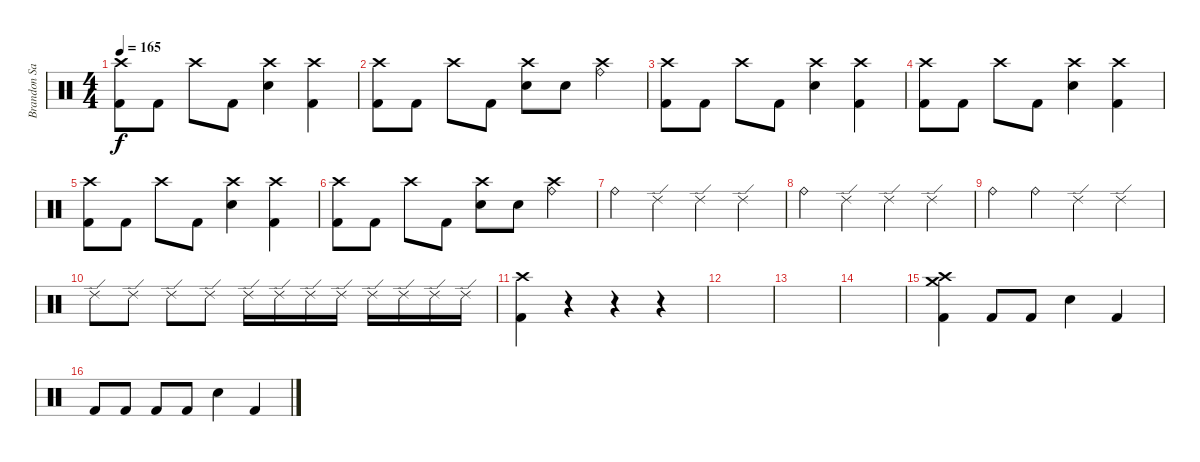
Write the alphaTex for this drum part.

\track ("Brandon Saller" "Brandon Sa") {instrument percussion}
\staff {score}
\articulation defaults
\ts (4 4)
\tempo 165
\clef neutral
\ks c
("Crash high (hit)" "Kick (hit) 2").8{dy f} "Kick (hit) 2".8 "Crash high (hit)".8 "Kick (hit) 2".8 ("Crash high (hit)" "Electric Snare (hit)").4 ("Crash high (hit)" "Kick (hit) 2").4 |
("Crash high (hit)" "Kick (hit) 2").8 "Kick (hit) 2".8 "Crash high (hit)".8 "Kick (hit) 2".8 ("Crash high (hit)" "Electric Snare (hit)").8 "Electric Snare (hit)".8 ("Crash high (hit)" "Ride (bell)").4 |
("Crash high (hit)" "Kick (hit) 2").8 "Kick (hit) 2".8 "Crash high (hit)".8 "Kick (hit) 2".8 ("Crash high (hit)" "Electric Snare (hit)").4 ("Crash high (hit)" "Kick (hit) 2").4 |
("Crash high (hit)" "Kick (hit) 2").8 "Kick (hit) 2".8 "Crash high (hit)".8 "Kick (hit) 2".8 ("Crash high (hit)" "Electric Snare (hit)").4 ("Crash high (hit)" "Kick (hit) 2").4 |
("Crash high (hit)" "Kick (hit) 2").8 "Kick (hit) 2".8 "Crash high (hit)".8 "Kick (hit) 2".8 ("Crash high (hit)" "Electric Snare (hit)").4 ("Crash high (hit)" "Kick (hit) 2").4 |
("Crash high (hit)" "Kick (hit) 2").8 "Kick (hit) 2".8 "Crash high (hit)".8 "Kick (hit) 2".8 ("Crash high (hit)" "Electric Snare (hit)").8 "Electric Snare (hit)".8 ("Crash high (hit)" "Ride (bell)").4 |
"Ride (bell)".4 "Ride (edge) 2".4 "Ride (edge) 2".4 "Ride (edge) 2".4 |
"Ride (bell)".4 "Ride (edge) 2".4 "Ride (edge) 2".4 "Ride (edge) 2".4 |
"Ride (bell)".4 "Ride (bell)".4 "Ride (edge) 2".4 "Ride (edge) 2".4 |
"Ride (edge) 2".8 "Ride (edge) 2".8 "Ride (edge) 2".8 "Ride (edge) 2".8 "Ride (edge) 2".16 "Ride (edge) 2".16 "Ride (edge) 2".16 "Ride (edge) 2".16 "Ride (edge) 2".16 "Ride (edge) 2".16 "Ride (edge) 2".16 "Ride (edge) 2".16 |
("Crash high (hit)" "Kick (hit) 2").4 r.4 r.4 r.4 |
|
|
|
("Crash medium (hit)" "Crash high (hit)" "Kick (hit) 2").4 "Kick (hit) 2".8 "Kick (hit) 2".8 "Electric Snare (hit)".4 "Kick (hit) 2".4 |
"Kick (hit) 2".8 "Kick (hit) 2".8 "Kick (hit) 2".8 "Kick (hit) 2".8 "Electric Snare (hit)".4 "Kick (hit) 2".4
